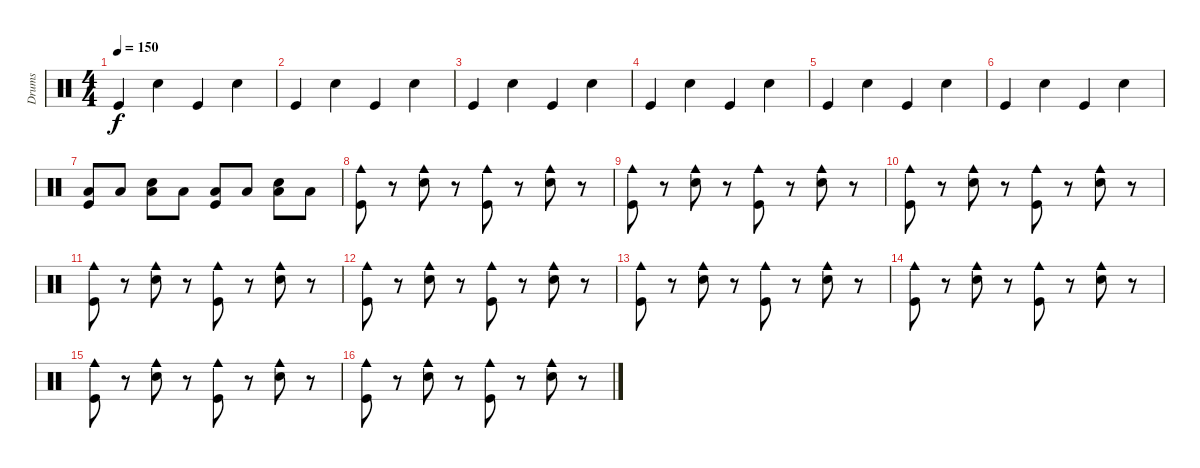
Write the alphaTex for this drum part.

\track ("Drums" "Drums") {instrument percussion}
\staff {score}
\articulation defaults
\ts (4 4)
\tempo 150
\clef neutral
\ks c "Kick (hit)".4{dy f} "Snare (hit) 2".4 "Kick (hit)".4 "Snare (hit) 2".4
|
"Kick (hit)".4 "Snare (hit) 2".4 "Kick (hit)".4 "Snare (hit) 2".4 |
"Kick (hit)".4 "Snare (hit) 2".4 "Kick (hit)".4 "Snare (hit) 2".4 |
"Kick (hit)".4 "Snare (hit) 2".4 "Kick (hit)".4 "Snare (hit) 2".4 |
"Kick (hit)".4 "Snare (hit) 2".4 "Kick (hit)".4 "Snare (hit) 2".4 |
"Kick (hit)".4 "Snare (hit) 2".4 "Kick (hit)".4 "Snare (hit) 2".4 |
("Low Tom (hit)" "Kick (hit)").8 "Low Tom (hit)".8 ("Low Tom (hit)" "Snare (hit) 2").8 "Low Tom (hit)".8 ("Low Tom (hit)" "Kick (hit)").8 "Low Tom (hit)".8 ("Low Tom (hit)" "Snare (hit) 2").8 "Low Tom (hit)".8 |
("Cowbell medium (hit)" "Kick (hit)").8 r.8 ("Cowbell medium (hit)" "Snare (hit) 2").8 r.8 ("Cowbell medium (hit)" "Kick (hit)").8 r.8 ("Cowbell medium (hit)" "Snare (hit) 2").8 r.8 |
("Cowbell medium (hit)" "Kick (hit)").8 r.8 ("Cowbell medium (hit)" "Snare (hit) 2").8 r.8 ("Cowbell medium (hit)" "Kick (hit)").8 r.8 ("Cowbell medium (hit)" "Snare (hit) 2").8 r.8 |
("Cowbell medium (hit)" "Kick (hit)").8 r.8 ("Cowbell medium (hit)" "Snare (hit) 2").8 r.8 ("Cowbell medium (hit)" "Kick (hit)").8 r.8 ("Cowbell medium (hit)" "Snare (hit) 2").8 r.8 |
("Cowbell medium (hit)" "Kick (hit)").8 r.8 ("Cowbell medium (hit)" "Snare (hit) 2").8 r.8 ("Cowbell medium (hit)" "Kick (hit)").8 r.8 ("Cowbell medium (hit)" "Snare (hit) 2").8 r.8 |
("Cowbell medium (hit)" "Kick (hit)").8 r.8 ("Cowbell medium (hit)" "Snare (hit) 2").8 r.8 ("Cowbell medium (hit)" "Kick (hit)").8 r.8 ("Cowbell medium (hit)" "Snare (hit) 2").8 r.8 |
("Cowbell medium (hit)" "Kick (hit)").8 r.8 ("Cowbell medium (hit)" "Snare (hit) 2").8 r.8 ("Cowbell medium (hit)" "Kick (hit)").8 r.8 ("Cowbell medium (hit)" "Snare (hit) 2").8 r.8 |
("Cowbell medium (hit)" "Kick (hit)").8 r.8 ("Cowbell medium (hit)" "Snare (hit) 2").8 r.8 ("Cowbell medium (hit)" "Kick (hit)").8 r.8 ("Cowbell medium (hit)" "Snare (hit) 2").8 r.8 |
("Cowbell medium (hit)" "Kick (hit)").8 r.8 ("Cowbell medium (hit)" "Snare (hit) 2").8 r.8 ("Cowbell medium (hit)" "Kick (hit)").8 r.8 ("Cowbell medium (hit)" "Snare (hit) 2").8 r.8 |
("Cowbell medium (hit)" "Kick (hit)").8 r.8 ("Cowbell medium (hit)" "Snare (hit) 2").8 r.8 ("Cowbell medium (hit)" "Kick (hit)").8 r.8 ("Cowbell medium (hit)" "Snare (hit) 2").8 r.8
